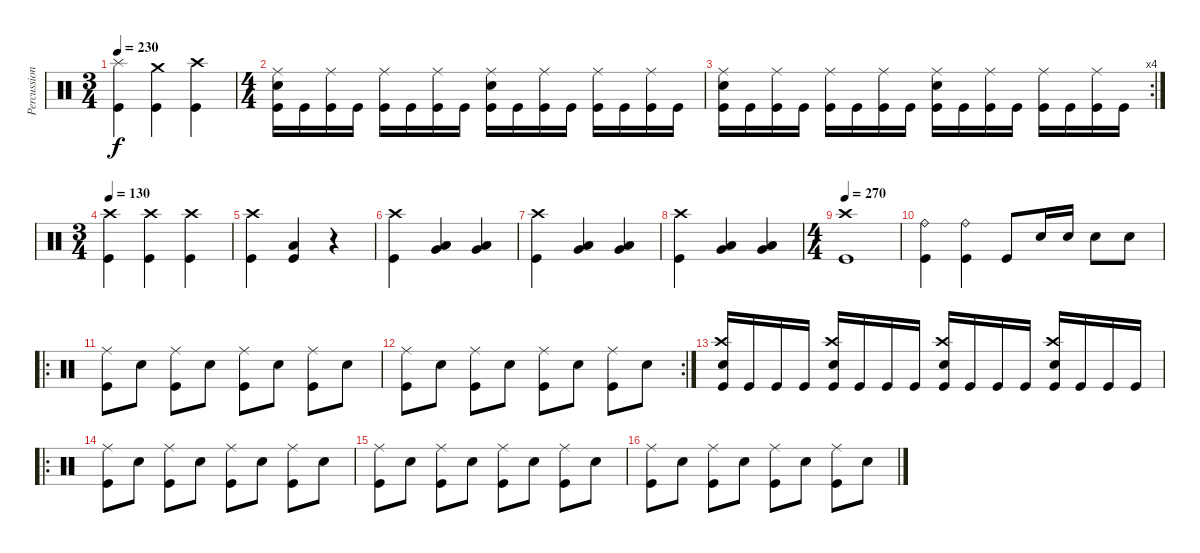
\track ("Percussion" "Percussion") {instrument percussion}
\staff {score}
\articulation defaults
\ts (3 4)
\tempo 230
\clef neutral
\ks c
("Splash (hit)" "Kick (hit)").4{dy f} ("Crash medium (hit)" "Kick (hit)").4 ("Crash high (hit)" "Kick (hit)").4 |
\ts (4 4)
("Ride (middle)" "Snare (hit) 2" "Kick (hit)").16 "Kick (hit)".16 ("Ride (middle)" "Kick (hit)").16 "Kick (hit)".16 ("Ride (middle)" "Kick (hit)").16 "Kick (hit)".16 ("Ride (middle)" "Kick (hit)").16 "Kick (hit)".16 ("Ride (middle)" "Snare (hit) 2" "Kick (hit)").16 "Kick (hit)".16 ("Ride (middle)" "Kick (hit)").16 "Kick (hit)".16 ("Ride (middle)" "Kick (hit)").16 "Kick (hit)".16 ("Ride (middle)" "Kick (hit)").16 "Kick (hit)".16 |
\rc 4
("Ride (middle)" "Snare (hit) 2" "Kick (hit)").16 "Kick (hit)".16 ("Ride (middle)" "Kick (hit)").16 "Kick (hit)".16 ("Ride (middle)" "Kick (hit)").16 "Kick (hit)".16 ("Ride (middle)" "Kick (hit)").16 "Kick (hit)".16 ("Ride (middle)" "Snare (hit) 2" "Kick (hit)").16 "Kick (hit)".16 ("Ride (middle)" "Kick (hit)").16 "Kick (hit)".16 ("Ride (middle)" "Kick (hit)").16 "Kick (hit)".16 ("Ride (middle)" "Kick (hit)").16 "Kick (hit)".16 |
\ts (3 4)
\tempo 130
("Crash high (hit)" "Kick (hit)").4 ("Crash high (hit)" "Kick (hit)").4 ("Crash high (hit)" "Kick (hit)").4 |
("Crash high (hit)" "Kick (hit)").4 ("Low Floor Tom (hit)" "Kick (hit)").4 r.4 |
("Crash high (hit)" "Kick (hit)").4 ("Very Low Tom (hit)" "Low Floor Tom (hit)").4 ("Very Low Tom (hit)" "Low Floor Tom (hit)").4 |
("Crash high (hit)" "Kick (hit)").4 ("Very Low Tom (hit)" "Low Floor Tom (hit)").4 ("Very Low Tom (hit)" "Low Floor Tom (hit)").4 |
("Crash high (hit)" "Kick (hit)").4 ("Very Low Tom (hit)" "Low Floor Tom (hit)").4 ("Very Low Tom (hit)" "Low Floor Tom (hit)").4 |
\ts (4 4)
\tempo 270
("Crash high (hit)" "Kick (hit)").1 |
("Ride (bell)" "Kick (hit)").4 ("Ride (bell)" "Kick (hit)").4 "Kick (hit)".8 "Snare (hit) 2".16 "Snare (hit) 2".16 "Snare (hit) 2".8 "Snare (hit) 2".8 |
\ro
("Ride (middle)" "Kick (hit)").8 "Snare (hit) 2".8 ("Ride (middle)" "Kick (hit)").8 "Snare (hit) 2".8 ("Ride (middle)" "Kick (hit)").8 "Snare (hit) 2".8 ("Ride (middle)" "Kick (hit)").8 "Snare (hit) 2".8 |
\rc 2
("Ride (middle)" "Kick (hit)").8 "Snare (hit) 2".8 ("Ride (middle)" "Kick (hit)").8 "Snare (hit) 2".8 ("Ride (middle)" "Kick (hit)").8 "Snare (hit) 2".8 ("Ride (middle)" "Kick (hit)").8 "Snare (hit) 2".8 |
("Crash high (hit)" "Snare (hit) 2" "Kick (hit)").16 "Kick (hit)".16 "Kick (hit)".16 "Kick (hit)".16 ("Crash high (hit)" "Snare (hit) 2" "Kick (hit)").16 "Kick (hit)".16 "Kick (hit)".16 "Kick (hit)".16 ("Crash high (hit)" "Snare (hit) 2" "Kick (hit)").16 "Kick (hit)".16 "Kick (hit)".16 "Kick (hit)".16 ("Crash high (hit)" "Snare (hit) 2" "Kick (hit)").16 "Kick (hit)".16 "Kick (hit)".16 "Kick (hit)".16 |
\ro
("Ride (middle)" "Kick (hit)").8 "Snare (hit) 2".8 ("Ride (middle)" "Kick (hit)").8 "Snare (hit) 2".8 ("Ride (middle)" "Kick (hit)").8 "Snare (hit) 2".8 ("Ride (middle)" "Kick (hit)").8 "Snare (hit) 2".8 |
("Ride (middle)" "Kick (hit)").8 "Snare (hit) 2".8 ("Ride (middle)" "Kick (hit)").8 "Snare (hit) 2".8 ("Ride (middle)" "Kick (hit)").8 "Snare (hit) 2".8 ("Ride (middle)" "Kick (hit)").8 "Snare (hit) 2".8 |
("Ride (middle)" "Kick (hit)").8 "Snare (hit) 2".8 ("Ride (middle)" "Kick (hit)").8 "Snare (hit) 2".8 ("Ride (middle)" "Kick (hit)").8 "Snare (hit) 2".8 ("Ride (middle)" "Kick (hit)").8 "Snare (hit) 2".8
